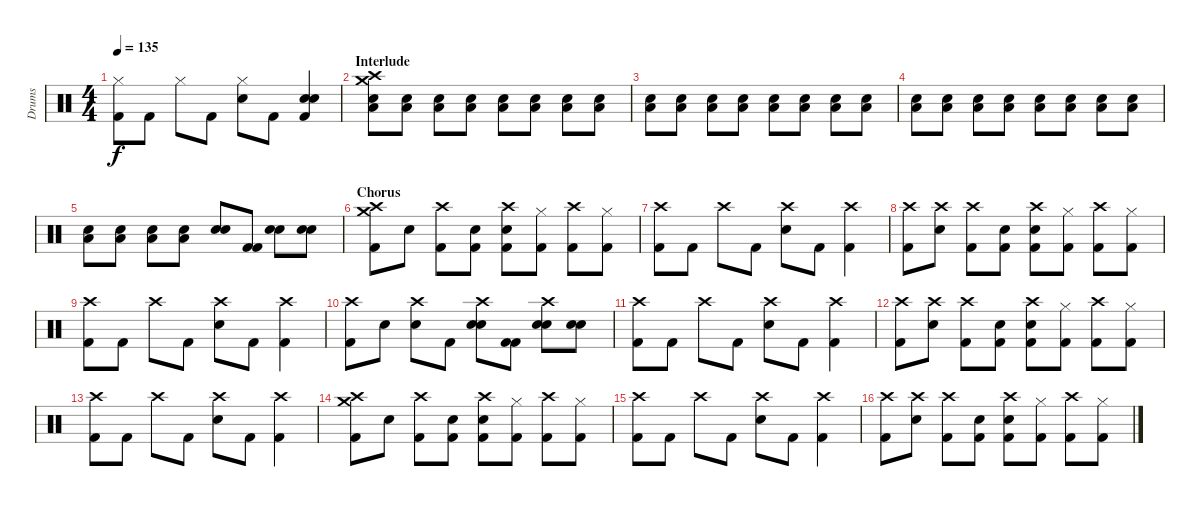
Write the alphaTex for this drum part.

\track ("Drums" "Drums") {instrument percussion}
\staff {score}
\articulation defaults
\ts (4 4)
\tempo 135
\clef neutral
\ks c
("Hi-Hat (closed)" "Kick (hit) 2"{x}).8{dy f} "Kick (hit) 2"{x}.8 "Hi-Hat (closed)".8 "Kick (hit) 2".8 ("Hi-Hat (closed)" "Electric Snare (hit)").8 "Kick (hit) 2".8 ("Electric Snare (hit)" "Snare (hit) 2" "Kick (hit) 2"{x}).4 |
\section ("" "Interlude")
("Crash high (hit)" "Crash medium (hit)" "Low Tom (hit)" "Electric Snare (hit)").8{volume 6} ("Low Tom (hit)" "Electric Snare (hit)").8{volume 13} ("Low Tom (hit)" "Electric Snare (hit)").8 ("Low Tom (hit)" "Electric Snare (hit)").8 ("Low Tom (hit)" "Electric Snare (hit)").8 ("Low Tom (hit)" "Electric Snare (hit)").8 ("Low Tom (hit)" "Electric Snare (hit)").8 ("Low Tom (hit)" "Electric Snare (hit)").8 |
("Low Tom (hit)" "Electric Snare (hit)").8 ("Low Tom (hit)" "Electric Snare (hit)").8 ("Low Tom (hit)" "Electric Snare (hit)").8 ("Low Tom (hit)" "Electric Snare (hit)").8 ("Low Tom (hit)" "Electric Snare (hit)").8 ("Low Tom (hit)" "Electric Snare (hit)").8 ("Low Tom (hit)" "Electric Snare (hit)").8 ("Low Tom (hit)" "Electric Snare (hit)").8 |
("Low Tom (hit)" "Electric Snare (hit)").8 ("Low Tom (hit)" "Electric Snare (hit)").8 ("Low Tom (hit)" "Electric Snare (hit)").8 ("Low Tom (hit)" "Electric Snare (hit)").8 ("Low Tom (hit)" "Electric Snare (hit)").8 ("Low Tom (hit)" "Electric Snare (hit)").8 ("Low Tom (hit)" "Electric Snare (hit)").8 ("Low Tom (hit)" "Electric Snare (hit)").8 |
("Low Tom (hit)" "Electric Snare (hit)").8 ("Low Tom (hit)" "Electric Snare (hit)").8 ("Low Tom (hit)" "Electric Snare (hit)").8 ("Low Tom (hit)" "Electric Snare (hit)").8 ("Snare (hit) 2" "Electric Snare (hit)").8 ("Kick (hit) 2" "Kick (hit) 2").8 ("Snare (hit) 2" "Electric Snare (hit)").8 ("Snare (hit) 2"{x} "Electric Snare (hit)"{x}).8 |
\section ("" "Chorus")
("Crash high (hit)" "Crash medium (hit)" "Kick (hit) 2").8 "Snare (hit)"{x}.8 ("Crash high (hit)" "Kick (hit) 2"{x}).8 ("Electric Snare (hit)"{x} "Kick (hit) 2").8 ("Crash high (hit)" "Electric Snare (hit)" "Kick (hit) 2"{x}).8 ("Hi-Hat (closed)"{x} "Kick (hit) 2"{x}).8 ("Crash high (hit)" "Kick (hit) 2").8 ("Hi-Hat (closed)"{x} "Kick (hit) 2").8 |
("Crash high (hit)" "Kick (hit) 2"{x}).8 "Kick (hit) 2"{x}.8 "Crash high (hit)".8 "Kick (hit) 2".8 ("Crash high (hit)" "Electric Snare (hit)").8 "Kick (hit) 2".8 ("Crash high (hit)" "Kick (hit) 2"{x}).4 |
("Crash high (hit)" "Kick (hit) 2").8 ("Crash high (hit)"{x} "Snare (hit)"{x}).8 ("Crash high (hit)" "Kick (hit) 2"{x}).8 ("Electric Snare (hit)"{x} "Kick (hit) 2").8 ("Crash high (hit)" "Electric Snare (hit)" "Kick (hit) 2"{x}).8 ("Hi-Hat (closed)"{x} "Kick (hit) 2"{x}).8 ("Crash high (hit)" "Kick (hit) 2").8 ("Hi-Hat (closed)"{x} "Kick (hit) 2").8 |
("Crash high (hit)" "Kick (hit) 2"{x}).8 "Kick (hit) 2"{x}.8 "Crash high (hit)".8 "Kick (hit) 2".8 ("Crash high (hit)" "Electric Snare (hit)").8 "Kick (hit) 2".8 ("Crash high (hit)" "Kick (hit) 2"{x}).4 |
("Crash high (hit)" "Kick (hit) 2").8 "Snare (hit)"{x}.8 ("Crash high (hit)" "Snare (hit)"{x}).8 "Kick (hit) 2".8 ("Crash high (hit)" "Snare (hit) 2" "Electric Snare (hit)").8 ("Kick (hit) 2" "Kick (hit) 2").8 ("Crash high (hit)" "Snare (hit) 2" "Electric Snare (hit)").8 ("Snare (hit) 2"{x} "Electric Snare (hit)"{x}).8 |
("Crash high (hit)" "Kick (hit) 2"{x}).8 "Kick (hit) 2"{x}.8 "Crash high (hit)".8 "Kick (hit) 2".8 ("Crash high (hit)" "Electric Snare (hit)").8 "Kick (hit) 2".8 ("Crash high (hit)" "Kick (hit) 2"{x}).4 |
("Crash high (hit)" "Kick (hit) 2").8 ("Crash high (hit)"{x} "Snare (hit)"{x}).8 ("Crash high (hit)" "Kick (hit) 2"{x}).8 ("Electric Snare (hit)"{x} "Kick (hit) 2").8 ("Crash high (hit)" "Electric Snare (hit)" "Kick (hit) 2"{x}).8 ("Hi-Hat (closed)"{x} "Kick (hit) 2"{x}).8 ("Crash high (hit)" "Kick (hit) 2").8 ("Hi-Hat (closed)"{x} "Kick (hit) 2").8 |
("Crash high (hit)" "Kick (hit) 2"{x}).8 "Kick (hit) 2"{x}.8 "Crash high (hit)".8 "Kick (hit) 2".8 ("Crash high (hit)" "Electric Snare (hit)").8 "Kick (hit) 2".8 ("Crash high (hit)" "Kick (hit) 2"{x}).4 |
("Crash high (hit)" "Crash medium (hit)" "Kick (hit) 2").8 "Snare (hit)"{x}.8 ("Crash high (hit)" "Kick (hit) 2"{x}).8 ("Electric Snare (hit)"{x} "Kick (hit) 2").8 ("Crash high (hit)" "Electric Snare (hit)" "Kick (hit) 2"{x}).8 ("Hi-Hat (closed)"{x} "Kick (hit) 2"{x}).8 ("Crash high (hit)" "Kick (hit) 2").8 ("Hi-Hat (closed)"{x} "Kick (hit) 2").8 |
("Crash high (hit)" "Kick (hit) 2"{x}).8 "Kick (hit) 2"{x}.8 "Crash high (hit)".8 "Kick (hit) 2".8 ("Crash high (hit)" "Electric Snare (hit)").8 "Kick (hit) 2".8 ("Crash high (hit)" "Kick (hit) 2"{x}).4 |
("Crash high (hit)" "Kick (hit) 2").8 ("Crash high (hit)"{x} "Snare (hit)"{x}).8 ("Crash high (hit)" "Kick (hit) 2"{x}).8 ("Electric Snare (hit)"{x} "Kick (hit) 2").8 ("Crash high (hit)" "Electric Snare (hit)" "Kick (hit) 2"{x}).8 ("Hi-Hat (closed)"{x} "Kick (hit) 2"{x}).8 ("Crash high (hit)" "Kick (hit) 2").8 ("Hi-Hat (closed)"{x} "Kick (hit) 2").8
